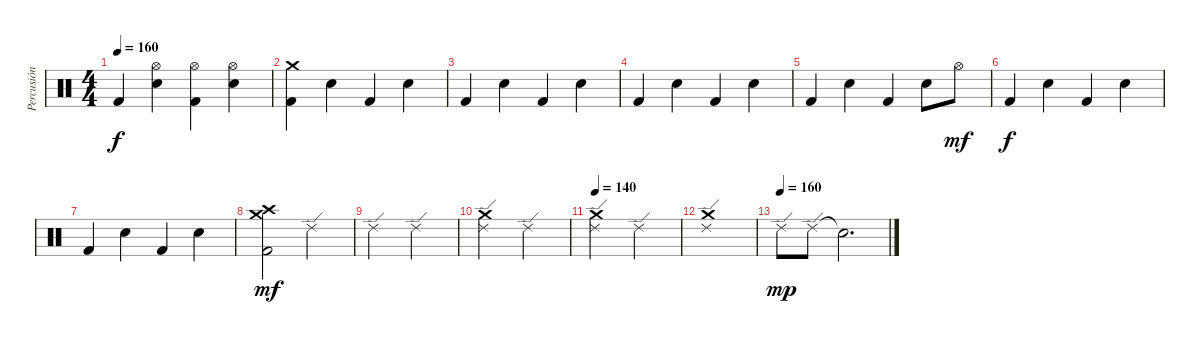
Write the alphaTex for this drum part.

\track ("Percusión" "Percusión") {instrument percussion}
\staff {score}
\articulation defaults
\ts (4 4)
\tempo 160
\clef neutral
\ks c "Kick (hit) 2".4{dy f}
("Hi-Hat (open)" "Electric Snare (hit)").4 ("Hi-Hat (open)" "Kick (hit) 2").4 ("Hi-Hat (open)" "Electric Snare (hit)").4 |
("Crash medium (hit)" "Kick (hit) 2").4 "Electric Snare (hit)".4 "Kick (hit) 2".4 "Electric Snare (hit)".4 |
"Kick (hit) 2".4 "Electric Snare (hit)".4 "Kick (hit) 2".4 "Electric Snare (hit)".4 |
"Kick (hit) 2".4 "Electric Snare (hit)".4 "Kick (hit) 2".4 "Electric Snare (hit)".4 |
"Kick (hit) 2".4 "Electric Snare (hit)".4 "Kick (hit) 2".4 "Electric Snare (hit)".8 "Hi-Hat (open)".8{dy mf} |
"Kick (hit) 2".4{dy f} "Electric Snare (hit)".4 "Kick (hit) 2".4 "Electric Snare (hit)".4 |
"Kick (hit) 2".4 "Electric Snare (hit)".4 "Kick (hit) 2".4 "Electric Snare (hit)".4 |
("Crash medium (hit)" "Crash high (hit)" "Kick (hit) 2").2{dy mf} "Ride (edge) 2".2 |
"Ride (edge) 2".2 "Ride (edge) 2".2 |
("Crash medium (hit)" "Ride (edge) 2").2 "Ride (edge) 2".2 |
\tempo 140
("Crash medium (hit)" "Ride (edge) 2").2 "Ride (edge) 2".2 |
("Crash medium (hit)" "Ride (edge) 2").1 |
\tempo (160)
"Ride (edge) 2".8{dy mp} "Ride (edge) 2".8 "Snare (hit)"{t}.2{d}
